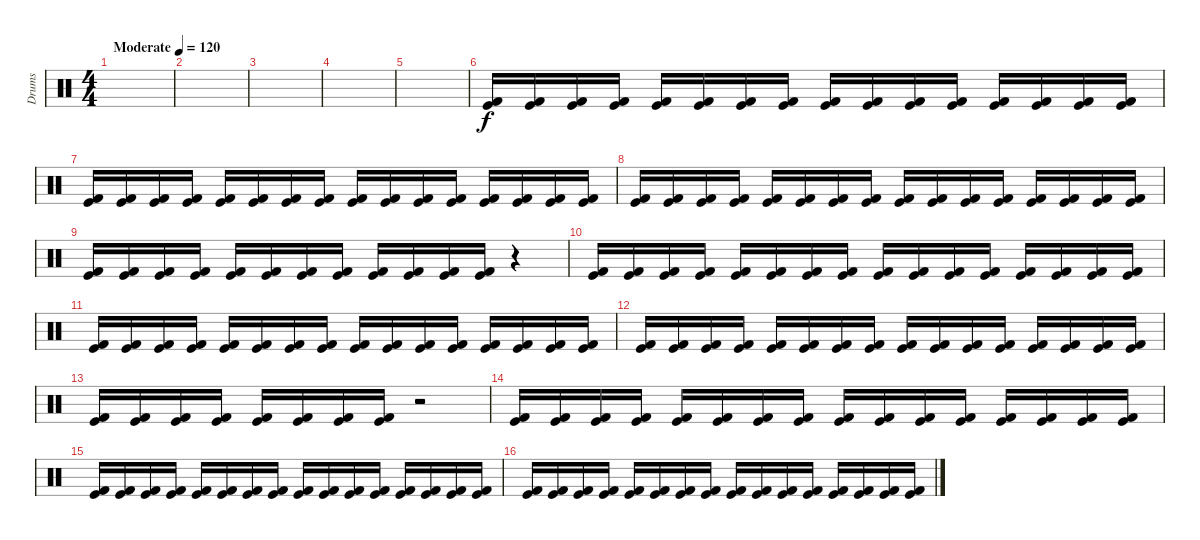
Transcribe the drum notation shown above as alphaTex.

\track ("Drums" "Drums") {instrument percussion}
\staff {score}
\articulation defaults
\ts (4 4)
\tempo (120 "Moderate")
\clef neutral
\ks c
|
|
|
|
|
("Kick (hit) 2" "Kick (hit)").16 ("Kick (hit) 2" "Kick (hit)").16 ("Kick (hit) 2" "Kick (hit)").16 ("Kick (hit) 2" "Kick (hit)").16 ("Kick (hit) 2" "Kick (hit)").16 ("Kick (hit) 2" "Kick (hit)").16 ("Kick (hit) 2" "Kick (hit)").16 ("Kick (hit) 2" "Kick (hit)").16 ("Kick (hit) 2" "Kick (hit)").16 ("Kick (hit) 2" "Kick (hit)").16 ("Kick (hit) 2" "Kick (hit)").16 ("Kick (hit) 2" "Kick (hit)").16 ("Kick (hit) 2" "Kick (hit)").16 ("Kick (hit) 2" "Kick (hit)").16 ("Kick (hit) 2" "Kick (hit)").16 ("Kick (hit) 2" "Kick (hit)").16 |
("Kick (hit) 2" "Kick (hit)").16 ("Kick (hit) 2" "Kick (hit)").16 ("Kick (hit) 2" "Kick (hit)").16 ("Kick (hit) 2" "Kick (hit)").16 ("Kick (hit) 2" "Kick (hit)").16 ("Kick (hit) 2" "Kick (hit)").16 ("Kick (hit) 2" "Kick (hit)").16 ("Kick (hit) 2" "Kick (hit)").16 ("Kick (hit) 2" "Kick (hit)").16 ("Kick (hit) 2" "Kick (hit)").16 ("Kick (hit) 2" "Kick (hit)").16 ("Kick (hit) 2" "Kick (hit)").16 ("Kick (hit) 2" "Kick (hit)").16 ("Kick (hit) 2" "Kick (hit)").16 ("Kick (hit) 2" "Kick (hit)").16 ("Kick (hit) 2" "Kick (hit)").16 |
("Kick (hit) 2" "Kick (hit)").16 ("Kick (hit) 2" "Kick (hit)").16 ("Kick (hit) 2" "Kick (hit)").16 ("Kick (hit) 2" "Kick (hit)").16 ("Kick (hit) 2" "Kick (hit)").16 ("Kick (hit) 2" "Kick (hit)").16 ("Kick (hit) 2" "Kick (hit)").16 ("Kick (hit) 2" "Kick (hit)").16 ("Kick (hit) 2" "Kick (hit)").16 ("Kick (hit) 2" "Kick (hit)").16 ("Kick (hit) 2" "Kick (hit)").16 ("Kick (hit) 2" "Kick (hit)").16 ("Kick (hit) 2" "Kick (hit)").16 ("Kick (hit) 2" "Kick (hit)").16 ("Kick (hit) 2" "Kick (hit)").16 ("Kick (hit) 2" "Kick (hit)").16 |
("Kick (hit) 2" "Kick (hit)").16 ("Kick (hit) 2" "Kick (hit)").16 ("Kick (hit) 2" "Kick (hit)").16 ("Kick (hit) 2" "Kick (hit)").16 ("Kick (hit) 2" "Kick (hit)").16 ("Kick (hit) 2" "Kick (hit)").16 ("Kick (hit) 2" "Kick (hit)").16 ("Kick (hit) 2" "Kick (hit)").16 ("Kick (hit) 2" "Kick (hit)").16 ("Kick (hit) 2" "Kick (hit)").16 ("Kick (hit) 2" "Kick (hit)").16 ("Kick (hit) 2" "Kick (hit)").16 r.4 |
("Kick (hit) 2" "Kick (hit)").16 ("Kick (hit) 2" "Kick (hit)").16 ("Kick (hit) 2" "Kick (hit)").16 ("Kick (hit) 2" "Kick (hit)").16 ("Kick (hit) 2" "Kick (hit)").16 ("Kick (hit) 2" "Kick (hit)").16 ("Kick (hit) 2" "Kick (hit)").16 ("Kick (hit) 2" "Kick (hit)").16 ("Kick (hit) 2" "Kick (hit)").16 ("Kick (hit) 2" "Kick (hit)").16 ("Kick (hit) 2" "Kick (hit)").16 ("Kick (hit) 2" "Kick (hit)").16 ("Kick (hit) 2" "Kick (hit)").16 ("Kick (hit) 2" "Kick (hit)").16 ("Kick (hit) 2" "Kick (hit)").16 ("Kick (hit) 2" "Kick (hit)").16 |
("Kick (hit) 2" "Kick (hit)").16 ("Kick (hit) 2" "Kick (hit)").16 ("Kick (hit) 2" "Kick (hit)").16 ("Kick (hit) 2" "Kick (hit)").16 ("Kick (hit) 2" "Kick (hit)").16 ("Kick (hit) 2" "Kick (hit)").16 ("Kick (hit) 2" "Kick (hit)").16 ("Kick (hit) 2" "Kick (hit)").16 ("Kick (hit) 2" "Kick (hit)").16 ("Kick (hit) 2" "Kick (hit)").16 ("Kick (hit) 2" "Kick (hit)").16 ("Kick (hit) 2" "Kick (hit)").16 ("Kick (hit) 2" "Kick (hit)").16 ("Kick (hit) 2" "Kick (hit)").16 ("Kick (hit) 2" "Kick (hit)").16 ("Kick (hit) 2" "Kick (hit)").16 |
("Kick (hit) 2" "Kick (hit)").16 ("Kick (hit) 2" "Kick (hit)").16 ("Kick (hit) 2" "Kick (hit)").16 ("Kick (hit) 2" "Kick (hit)").16 ("Kick (hit) 2" "Kick (hit)").16 ("Kick (hit) 2" "Kick (hit)").16 ("Kick (hit) 2" "Kick (hit)").16 ("Kick (hit) 2" "Kick (hit)").16 ("Kick (hit) 2" "Kick (hit)").16 ("Kick (hit) 2" "Kick (hit)").16 ("Kick (hit) 2" "Kick (hit)").16 ("Kick (hit) 2" "Kick (hit)").16 ("Kick (hit) 2" "Kick (hit)").16 ("Kick (hit) 2" "Kick (hit)").16 ("Kick (hit) 2" "Kick (hit)").16 ("Kick (hit) 2" "Kick (hit)").16 |
("Kick (hit) 2" "Kick (hit)").16 ("Kick (hit) 2" "Kick (hit)").16 ("Kick (hit) 2" "Kick (hit)").16 ("Kick (hit) 2" "Kick (hit)").16 ("Kick (hit) 2" "Kick (hit)").16 ("Kick (hit) 2" "Kick (hit)").16 ("Kick (hit) 2" "Kick (hit)").16 ("Kick (hit) 2" "Kick (hit)").16 r.2 |
("Kick (hit) 2" "Kick (hit)").16 ("Kick (hit) 2" "Kick (hit)").16 ("Kick (hit) 2" "Kick (hit)").16 ("Kick (hit) 2" "Kick (hit)").16 ("Kick (hit) 2" "Kick (hit)").16 ("Kick (hit) 2" "Kick (hit)").16 ("Kick (hit) 2" "Kick (hit)").16 ("Kick (hit) 2" "Kick (hit)").16 ("Kick (hit) 2" "Kick (hit)").16 ("Kick (hit) 2" "Kick (hit)").16 ("Kick (hit) 2" "Kick (hit)").16 ("Kick (hit) 2" "Kick (hit)").16 ("Kick (hit) 2" "Kick (hit)").16 ("Kick (hit) 2" "Kick (hit)").16 ("Kick (hit) 2" "Kick (hit)").16 ("Kick (hit) 2" "Kick (hit)").16 |
("Kick (hit) 2" "Kick (hit)").16 ("Kick (hit) 2" "Kick (hit)").16 ("Kick (hit) 2" "Kick (hit)").16 ("Kick (hit) 2" "Kick (hit)").16 ("Kick (hit) 2" "Kick (hit)").16 ("Kick (hit) 2" "Kick (hit)").16 ("Kick (hit) 2" "Kick (hit)").16 ("Kick (hit) 2" "Kick (hit)").16 ("Kick (hit) 2" "Kick (hit)").16 ("Kick (hit) 2" "Kick (hit)").16 ("Kick (hit) 2" "Kick (hit)").16 ("Kick (hit) 2" "Kick (hit)").16 ("Kick (hit) 2" "Kick (hit)").16 ("Kick (hit) 2" "Kick (hit)").16 ("Kick (hit) 2" "Kick (hit)").16 ("Kick (hit) 2" "Kick (hit)").16 |
("Kick (hit) 2" "Kick (hit)").16 ("Kick (hit) 2" "Kick (hit)").16 ("Kick (hit) 2" "Kick (hit)").16 ("Kick (hit) 2" "Kick (hit)").16 ("Kick (hit) 2" "Kick (hit)").16 ("Kick (hit) 2" "Kick (hit)").16 ("Kick (hit) 2" "Kick (hit)").16 ("Kick (hit) 2" "Kick (hit)").16 ("Kick (hit) 2" "Kick (hit)").16 ("Kick (hit) 2" "Kick (hit)").16 ("Kick (hit) 2" "Kick (hit)").16 ("Kick (hit) 2" "Kick (hit)").16 ("Kick (hit) 2" "Kick (hit)").16 ("Kick (hit) 2" "Kick (hit)").16 ("Kick (hit) 2" "Kick (hit)").16 ("Kick (hit) 2" "Kick (hit)").16
